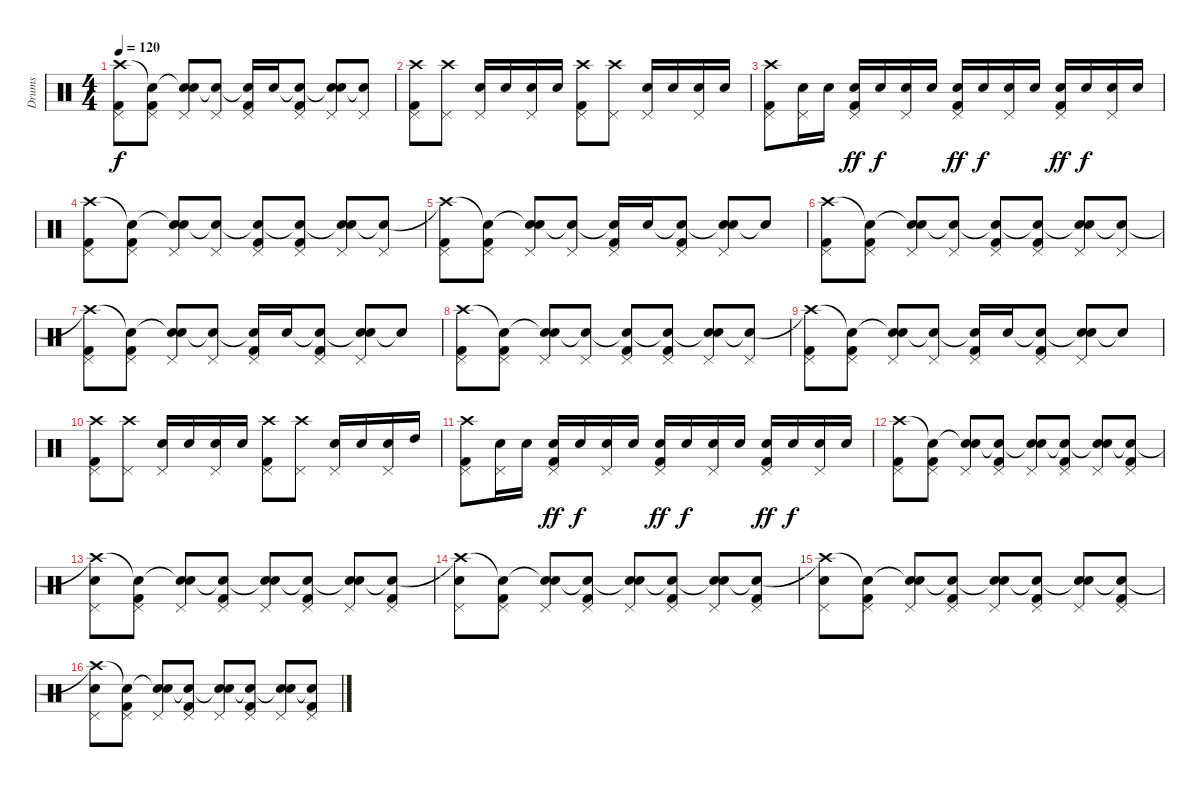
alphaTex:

\track ("Drums" "Drums") {instrument percussion}
\staff {score}
\articulation defaults
\ts (4 4)
\tempo 120
\clef neutral
\ks c
("Crash high (hit)"{t} "Pedal Hi-Hat (hit)" "Kick (hit) 2").8{dy f} ("Snare (hit)"{t} "Pedal Hi-Hat (hit)" "Kick (hit) 2").8 ("Snare (hit)"{t} "Pedal Hi-Hat (hit)" "Electric Snare (hit)").8 ("Snare (hit)"{t} "Pedal Hi-Hat (hit)").8 ("Snare (hit)"{t} "Pedal Hi-Hat (hit)" "Kick (hit) 2").16 "Electric Snare (hit)".16 ("Snare (hit)"{t} "Pedal Hi-Hat (hit)" "Kick (hit) 2").8 ("Snare (hit)"{t} "Pedal Hi-Hat (hit)" "Electric Snare (hit)").8 ("Snare (hit)"{t} "Pedal Hi-Hat (hit)").8 |
("Crash high (hit)" "Pedal Hi-Hat (hit)" "Kick (hit) 2").8 ("Crash high (hit)" "Pedal Hi-Hat (hit)").8 ("Pedal Hi-Hat (hit)" "Electric Snare (hit)").16 "Electric Snare (hit)".16 ("Pedal Hi-Hat (hit)" "Electric Snare (hit)").16 "Electric Snare (hit)".16 ("Crash high (hit)" "Pedal Hi-Hat (hit)" "Kick (hit) 2").8 ("Crash high (hit)" "Pedal Hi-Hat (hit)").8 ("Pedal Hi-Hat (hit)" "Electric Snare (hit)").16 "Electric Snare (hit)".16 ("Pedal Hi-Hat (hit)" "Electric Snare (hit)").16 "Electric Snare (hit)".16 |
("Crash high (hit)" "Pedal Hi-Hat (hit)" "Kick (hit) 2").8 ("Pedal Hi-Hat (hit)" "Electric Snare (hit)").16 "Electric Snare (hit)".16 ("Pedal Hi-Hat (hit)" "Electric Snare (hit)" "Kick (hit) 2").16{dy ff} "Electric Snare (hit)".16{dy f} ("Pedal Hi-Hat (hit)" "Electric Snare (hit)").16 "Electric Snare (hit)".16 ("Pedal Hi-Hat (hit)" "Electric Snare (hit)" "Kick (hit) 2").16{dy ff} "Electric Snare (hit)".16{dy f} ("Pedal Hi-Hat (hit)" "Electric Snare (hit)").16 "Electric Snare (hit)".16 ("Pedal Hi-Hat (hit)" "Electric Snare (hit)" "Kick (hit) 2").16{dy ff} "Electric Snare (hit)".16{dy f} ("Pedal Hi-Hat (hit)" "Electric Snare (hit)").16 "Electric Snare (hit)".16 |
("Crash high (hit)" "Pedal Hi-Hat (hit)" "Kick (hit) 2").8 ("Snare (hit)"{t} "Pedal Hi-Hat (hit)" "Kick (hit) 2").8 ("Snare (hit)"{t} "Pedal Hi-Hat (hit)" "Electric Snare (hit)").8 ("Snare (hit)"{t} "Pedal Hi-Hat (hit)").8 ("Snare (hit)"{t} "Pedal Hi-Hat (hit)" "Kick (hit) 2").8 ("Snare (hit)"{t} "Pedal Hi-Hat (hit)" "Kick (hit) 2").8 ("Snare (hit)"{t} "Pedal Hi-Hat (hit)" "Electric Snare (hit)").8 ("Snare (hit)"{t} "Pedal Hi-Hat (hit)").8 |
("Crash high (hit)"{t} "Pedal Hi-Hat (hit)" "Kick (hit) 2").8 ("Snare (hit)"{t} "Pedal Hi-Hat (hit)" "Kick (hit) 2").8 ("Snare (hit)"{t} "Pedal Hi-Hat (hit)" "Electric Snare (hit)").8 ("Snare (hit)"{t} "Pedal Hi-Hat (hit)").8 ("Snare (hit)"{t} "Pedal Hi-Hat (hit)" "Kick (hit) 2").16 "Electric Snare (hit)".16 ("Snare (hit)"{t} "Pedal Hi-Hat (hit)" "Kick (hit) 2").8 ("Snare (hit)"{t} "Pedal Hi-Hat (hit)" "Electric Snare (hit)").8 "Snare (hit)"{t}.8 |
("Crash high (hit)" "Pedal Hi-Hat (hit)" "Kick (hit) 2").8 ("Snare (hit)"{t} "Pedal Hi-Hat (hit)" "Kick (hit) 2").8 ("Snare (hit)"{t} "Pedal Hi-Hat (hit)" "Electric Snare (hit)").8 ("Snare (hit)"{t} "Pedal Hi-Hat (hit)").8 ("Snare (hit)"{t} "Pedal Hi-Hat (hit)" "Kick (hit) 2").8 ("Snare (hit)"{t} "Pedal Hi-Hat (hit)" "Kick (hit) 2").8 ("Snare (hit)"{t} "Pedal Hi-Hat (hit)" "Electric Snare (hit)").8 ("Snare (hit)"{t} "Pedal Hi-Hat (hit)").8 |
("Crash high (hit)"{t} "Pedal Hi-Hat (hit)" "Kick (hit) 2").8 ("Snare (hit)"{t} "Pedal Hi-Hat (hit)" "Kick (hit) 2").8 ("Snare (hit)"{t} "Pedal Hi-Hat (hit)" "Electric Snare (hit)").8 ("Snare (hit)"{t} "Pedal Hi-Hat (hit)").8 ("Snare (hit)"{t} "Pedal Hi-Hat (hit)" "Kick (hit) 2").16 "Electric Snare (hit)".16 ("Snare (hit)"{t} "Pedal Hi-Hat (hit)" "Kick (hit) 2").8 ("Snare (hit)"{t} "Pedal Hi-Hat (hit)" "Electric Snare (hit)").8 "Snare (hit)"{t}.8 |
("Crash high (hit)" "Pedal Hi-Hat (hit)" "Kick (hit) 2").8 ("Snare (hit)"{t} "Pedal Hi-Hat (hit)" "Kick (hit) 2").8 ("Snare (hit)"{t} "Pedal Hi-Hat (hit)" "Electric Snare (hit)").8 ("Snare (hit)"{t} "Pedal Hi-Hat (hit)").8 ("Snare (hit)"{t} "Pedal Hi-Hat (hit)" "Kick (hit) 2").8 ("Snare (hit)"{t} "Pedal Hi-Hat (hit)" "Kick (hit) 2").8 ("Snare (hit)"{t} "Pedal Hi-Hat (hit)" "Electric Snare (hit)").8 ("Snare (hit)"{t} "Pedal Hi-Hat (hit)").8 |
("Crash high (hit)"{t} "Pedal Hi-Hat (hit)" "Kick (hit) 2").8 ("Snare (hit)"{t} "Pedal Hi-Hat (hit)" "Kick (hit) 2").8 ("Snare (hit)"{t} "Pedal Hi-Hat (hit)" "Electric Snare (hit)").8 ("Snare (hit)"{t} "Pedal Hi-Hat (hit)").8 ("Snare (hit)"{t} "Pedal Hi-Hat (hit)" "Kick (hit) 2").16 "Electric Snare (hit)".16 ("Snare (hit)"{t} "Pedal Hi-Hat (hit)" "Kick (hit) 2").8 ("Snare (hit)"{t} "Pedal Hi-Hat (hit)" "Electric Snare (hit)").8 "Snare (hit)"{t}.8 |
("Crash high (hit)" "Pedal Hi-Hat (hit)" "Kick (hit) 2").8 ("Crash high (hit)" "Pedal Hi-Hat (hit)").8 ("Pedal Hi-Hat (hit)" "Electric Snare (hit)").16 "Electric Snare (hit)".16 ("Pedal Hi-Hat (hit)" "Electric Snare (hit)").16 "Electric Snare (hit)".16 ("Crash high (hit)" "Pedal Hi-Hat (hit)" "Kick (hit) 2").8 ("Crash high (hit)" "Pedal Hi-Hat (hit)").8 ("Pedal Hi-Hat (hit)" "Electric Snare (hit)").16 "Electric Snare (hit)".16 ("Pedal Hi-Hat (hit)" "Electric Snare (hit)").16 "High Tom (hit)".16 |
("Crash high (hit)" "Pedal Hi-Hat (hit)" "Kick (hit) 2").8 ("Pedal Hi-Hat (hit)" "Electric Snare (hit)").16 "Electric Snare (hit)".16 ("Pedal Hi-Hat (hit)" "Electric Snare (hit)" "Kick (hit) 2").16{dy ff} "Electric Snare (hit)".16{dy f} ("Pedal Hi-Hat (hit)" "Electric Snare (hit)").16 "Electric Snare (hit)".16 ("Pedal Hi-Hat (hit)" "Electric Snare (hit)" "Kick (hit) 2").16{dy ff} "Electric Snare (hit)".16{dy f} ("Pedal Hi-Hat (hit)" "Electric Snare (hit)").16 "Electric Snare (hit)".16 ("Pedal Hi-Hat (hit)" "Electric Snare (hit)" "Kick (hit) 2").16{dy ff} "Electric Snare (hit)".16{dy f} ("Pedal Hi-Hat (hit)" "Electric Snare (hit)").16 "Electric Snare (hit)".16 |
("Crash high (hit)" "Pedal Hi-Hat (hit)" "Kick (hit) 2").8 ("Snare (hit)"{t} "Pedal Hi-Hat (hit)" "Kick (hit) 2").8 ("Snare (hit)"{t} "Pedal Hi-Hat (hit)" "Electric Snare (hit)").8 ("Snare (hit)"{t} "Pedal Hi-Hat (hit)" "Kick (hit) 2").8 ("Snare (hit)"{t} "Pedal Hi-Hat (hit)" "Electric Snare (hit)").8 ("Snare (hit)"{t} "Pedal Hi-Hat (hit)" "Kick (hit) 2").8 ("Snare (hit)"{t} "Pedal Hi-Hat (hit)" "Electric Snare (hit)").8 ("Snare (hit)"{t} "Pedal Hi-Hat (hit)" "Kick (hit) 2").8 |
("Crash high (hit)"{t} "Pedal Hi-Hat (hit)" "Electric Snare (hit)").8 ("Snare (hit)"{t} "Pedal Hi-Hat (hit)" "Kick (hit) 2").8 ("Snare (hit)"{t} "Pedal Hi-Hat (hit)" "Electric Snare (hit)").8 ("Snare (hit)"{t} "Pedal Hi-Hat (hit)" "Kick (hit) 2").8 ("Snare (hit)"{t} "Pedal Hi-Hat (hit)" "Electric Snare (hit)").8 ("Snare (hit)"{t} "Pedal Hi-Hat (hit)" "Kick (hit) 2").8 ("Snare (hit)"{t} "Pedal Hi-Hat (hit)" "Electric Snare (hit)").8 ("Snare (hit)"{t} "Pedal Hi-Hat (hit)" "Kick (hit) 2").8 |
("Crash high (hit)"{t} "Pedal Hi-Hat (hit)" "Electric Snare (hit)").8 ("Snare (hit)"{t} "Pedal Hi-Hat (hit)" "Kick (hit) 2").8 ("Snare (hit)"{t} "Pedal Hi-Hat (hit)" "Electric Snare (hit)").8 ("Snare (hit)"{t} "Pedal Hi-Hat (hit)" "Kick (hit) 2").8 ("Snare (hit)"{t} "Pedal Hi-Hat (hit)" "Electric Snare (hit)").8 ("Snare (hit)"{t} "Pedal Hi-Hat (hit)" "Kick (hit) 2").8 ("Snare (hit)"{t} "Pedal Hi-Hat (hit)" "Electric Snare (hit)").8 ("Snare (hit)"{t} "Pedal Hi-Hat (hit)" "Kick (hit) 2").8 |
("Crash high (hit)"{t} "Pedal Hi-Hat (hit)" "Electric Snare (hit)").8 ("Snare (hit)"{t} "Pedal Hi-Hat (hit)" "Kick (hit) 2").8 ("Snare (hit)"{t} "Pedal Hi-Hat (hit)" "Electric Snare (hit)").8 ("Snare (hit)"{t} "Pedal Hi-Hat (hit)" "Kick (hit) 2").8 ("Snare (hit)"{t} "Pedal Hi-Hat (hit)" "Electric Snare (hit)").8 ("Snare (hit)"{t} "Pedal Hi-Hat (hit)" "Kick (hit) 2").8 ("Snare (hit)"{t} "Pedal Hi-Hat (hit)" "Electric Snare (hit)").8 ("Snare (hit)"{t} "Pedal Hi-Hat (hit)" "Kick (hit) 2").8 |
("Crash high (hit)"{t} "Pedal Hi-Hat (hit)" "Electric Snare (hit)").8 ("Snare (hit)"{t} "Pedal Hi-Hat (hit)" "Kick (hit) 2").8 ("Snare (hit)"{t} "Pedal Hi-Hat (hit)" "Electric Snare (hit)").8 ("Snare (hit)"{t} "Pedal Hi-Hat (hit)" "Kick (hit) 2").8 ("Snare (hit)"{t} "Pedal Hi-Hat (hit)" "Electric Snare (hit)").8 ("Snare (hit)"{t} "Pedal Hi-Hat (hit)" "Kick (hit) 2").8 ("Snare (hit)"{t} "Pedal Hi-Hat (hit)" "Electric Snare (hit)").8 ("Snare (hit)"{t} "Pedal Hi-Hat (hit)" "Kick (hit) 2").8
